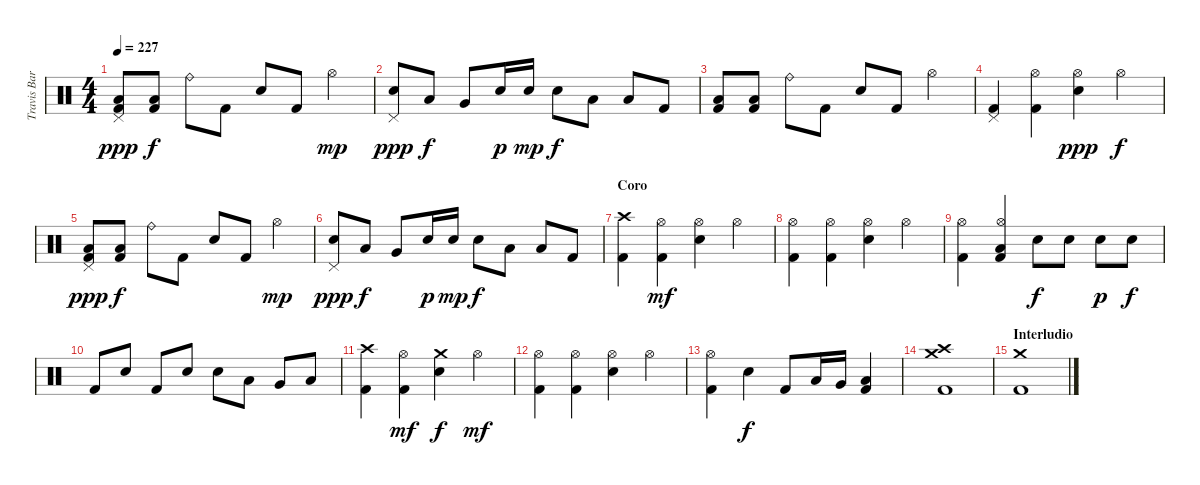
\track ("Travis Barker - Batería" "Travis Bar") {instrument percussion}
\staff {score}
\articulation defaults
\ts (4 4)
\tempo 227
\clef neutral
\ks c
("Pedal Hi-Hat (hit)" "Low Floor Tom (hit)" "Kick (hit) 2").8{dy ppp} ("Low Floor Tom (hit)" "Kick (hit) 2").8{dy f} "Ride (bell)".8 "Kick (hit) 2".8 "Electric Snare (hit)".8 "Kick (hit) 2".8 "Hi-Hat (open)".4{dy mp} |
("Pedal Hi-Hat (hit)" "Electric Snare (hit)").8{dy ppp} "Low Tom (hit)".8{dy f} "Very Low Tom (hit)".8 "Electric Snare (hit)".16{dy p} "Electric Snare (hit)".16{dy mp} "Electric Snare (hit)".8{dy f} "Low Tom (hit)".8 "Low Floor Tom (hit)".8 "Kick (hit) 2".8 |
("Low Floor Tom (hit)" "Kick (hit) 2").8 ("Low Floor Tom (hit)" "Kick (hit) 2").8 "Ride (bell)".8 "Kick (hit) 2".8 "Electric Snare (hit)".8 "Kick (hit) 2".8 "Hi-Hat (open)".4 |
("Pedal Hi-Hat (hit)" "Kick (hit) 2").4 ("Hi-Hat (open)" "Kick (hit) 2").4 ("Hi-Hat (open)" "Electric Snare (hit)").4{dy ppp} "Hi-Hat (open)".4{dy f} |
("Pedal Hi-Hat (hit)" "Low Floor Tom (hit)" "Kick (hit) 2").8{dy ppp} ("Low Floor Tom (hit)" "Kick (hit) 2").8{dy f} "Ride (bell)".8 "Kick (hit) 2".8 "Electric Snare (hit)".8 "Kick (hit) 2".8 "Hi-Hat (open)".4{dy mp} |
("Pedal Hi-Hat (hit)" "Electric Snare (hit)").8{dy ppp} "Low Tom (hit)".8{dy f} "Very Low Tom (hit)".8 "Electric Snare (hit)".16{dy p} "Electric Snare (hit)".16{dy mp} "Electric Snare (hit)".8{dy f} "Low Tom (hit)".8 "Low Floor Tom (hit)".8 "Kick (hit) 2".8 |
\section ("" "Coro")
("Crash high (hit)" "Kick (hit) 2").4 ("Hi-Hat (open)" "Kick (hit) 2").4{dy mf} ("Hi-Hat (open)" "Electric Snare (hit)").4 "Hi-Hat (open)".4 |
("Hi-Hat (open)" "Kick (hit) 2").4 ("Hi-Hat (open)" "Kick (hit) 2").4 ("Hi-Hat (open)" "Electric Snare (hit)").4 "Hi-Hat (open)".4 |
("Hi-Hat (open)" "Kick (hit) 2").4 ("Hi-Hat (open)" "Low Tom (hit)" "Kick (hit) 2").4 "Electric Snare (hit)".8{dy f} "Electric Snare (hit)".8 "Electric Snare (hit)".8{dy p} "Electric Snare (hit)".8{dy f} |
"Kick (hit) 2".8 "Electric Snare (hit)".8 "Kick (hit) 2".8 "Electric Snare (hit)".8 "Electric Snare (hit)".8 "Low Tom (hit)".8 "Very Low Tom (hit)".8 "Low Floor Tom (hit)".8 |
("Crash high (hit)" "Kick (hit) 2").4 ("Hi-Hat (open)" "Kick (hit) 2").4{dy mf} ("Crash medium (hit)" "Electric Snare (hit)").4{dy f} "Hi-Hat (open)".4{dy mf} |
("Hi-Hat (open)" "Kick (hit) 2").4 ("Hi-Hat (open)" "Kick (hit) 2").4 ("Hi-Hat (open)" "Electric Snare (hit)").4 "Hi-Hat (open)".4 |
("Hi-Hat (open)" "Kick (hit) 2").4 "Electric Snare (hit)".4{dy f} "Kick (hit) 2".8 "Low Tom (hit)".16 "Very Low Tom (hit)".16 ("Low Floor Tom (hit)" "Kick (hit) 2").4 |
("Crash medium (hit)" "Crash high (hit)" "Kick (hit) 2").1 |
\section ("" "Interludio")
("Crash medium (hit)" "Kick (hit) 2").1
